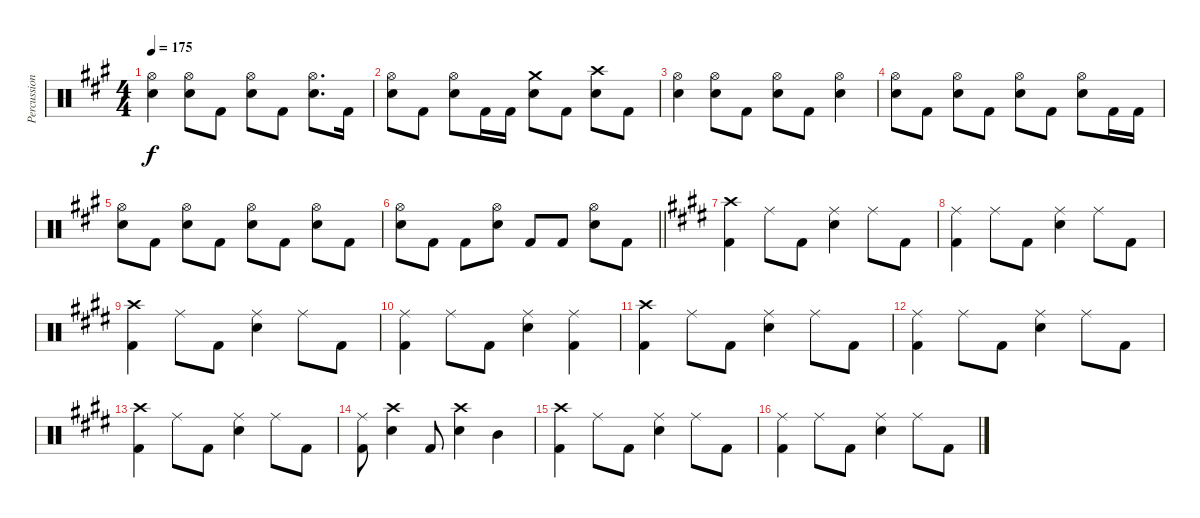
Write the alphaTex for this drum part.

\track ("Percussions" "Percussion") {instrument percussion}
\staff {score}
\articulation defaults
\ts (4 4)
\tempo 175
\clef neutral
\ks f#minor
("Hi-Hat (open)" "Snare (hit) 2").4{dy f} ("Hi-Hat (open)" "Snare (hit) 2").8 "Kick (hit) 2".8 ("Hi-Hat (open)" "Snare (hit) 2").8 "Kick (hit) 2".8 ("Hi-Hat (open)" "Snare (hit) 2").8{d} "Kick (hit) 2".16 |
("Hi-Hat (open)" "Snare (hit) 2").8 "Kick (hit) 2".8 ("Hi-Hat (open)" "Snare (hit) 2").8 "Kick (hit) 2".16 "Kick (hit) 2".16 ("Crash medium (hit)" "Snare (hit) 2").8 "Kick (hit) 2".8 ("Crash high (hit)" "Snare (hit) 2").8 "Kick (hit) 2".8 |
("Hi-Hat (open)" "Snare (hit) 2").4 ("Hi-Hat (open)" "Snare (hit) 2").8 "Kick (hit) 2".8 ("Hi-Hat (open)" "Snare (hit) 2").8 "Kick (hit) 2".8 ("Hi-Hat (open)" "Snare (hit) 2").4 |
("Hi-Hat (open)" "Snare (hit) 2").8 "Kick (hit) 2".8 ("Hi-Hat (open)" "Snare (hit) 2").8 "Kick (hit) 2".8 ("Hi-Hat (open)" "Snare (hit) 2").8 "Kick (hit) 2".8 ("Hi-Hat (open)" "Snare (hit) 2").8 "Kick (hit) 2".16 "Kick (hit) 2".16 |
("Hi-Hat (open)" "Snare (hit) 2").8 "Kick (hit) 2".8 ("Hi-Hat (open)" "Snare (hit) 2").8 "Kick (hit) 2".8 ("Hi-Hat (open)" "Snare (hit) 2").8 "Kick (hit) 2".8 ("Hi-Hat (open)" "Snare (hit) 2").8 "Kick (hit) 2".8 |
\barLineRight lightlight
("Hi-Hat (open)" "Snare (hit) 2").8 "Kick (hit) 2".8 "Kick (hit) 2".8 ("Hi-Hat (open)" "Snare (hit) 2").8 "Kick (hit) 2".8 "Kick (hit) 2".8 ("Hi-Hat (open)" "Snare (hit) 2").8 "Kick (hit) 2".8 |
\ks e
("Crash high (hit)" "Kick (hit) 2").4 "Ride (middle)".8 "Kick (hit) 2".8 ("Ride (middle)" "Snare (hit) 2").4 "Ride (middle)".8 "Kick (hit) 2".8 |
("Ride (middle)" "Kick (hit) 2").4 "Ride (middle)".8 "Kick (hit) 2".8 ("Ride (middle)" "Snare (hit) 2").4 "Ride (middle)".8 "Kick (hit) 2".8 |
("Crash high (hit)" "Kick (hit) 2").4 "Ride (middle)".8 "Kick (hit) 2".8 ("Ride (middle)" "Snare (hit) 2").4 "Ride (middle)".8 "Kick (hit) 2".8 |
("Ride (middle)" "Kick (hit) 2").4 "Ride (middle)".8 "Kick (hit) 2".8 ("Ride (middle)" "Snare (hit) 2").4 ("Ride (middle)" "Kick (hit) 2").4 |
("Crash high (hit)" "Kick (hit) 2").4 "Ride (middle)".8 "Kick (hit) 2".8 ("Ride (middle)" "Snare (hit) 2").4 "Ride (middle)".8 "Kick (hit) 2".8 |
("Ride (middle)" "Kick (hit) 2").4 "Ride (middle)".8 "Kick (hit) 2".8 ("Ride (middle)" "Snare (hit) 2").4 "Ride (middle)".8 "Kick (hit) 2".8 |
("Crash high (hit)" "Kick (hit) 2").4 "Ride (middle)".8 "Kick (hit) 2".8 ("Ride (middle)" "Snare (hit) 2").4 "Ride (middle)".8 "Kick (hit) 2".8 |
("Ride (middle)" "Kick (hit) 2").8 ("Crash high (hit)" "Snare (hit) 2").4 "Kick (hit) 2".8 ("Crash high (hit)" "Snare (hit) 2").4 "Mid Tom (hit)".4 |
("Crash high (hit)" "Kick (hit) 2").4 "Ride (middle)".8 "Kick (hit) 2".8 ("Ride (middle)" "Snare (hit) 2").4 "Ride (middle)".8 "Kick (hit) 2".8 |
("Ride (middle)" "Kick (hit) 2").4 "Ride (middle)".8 "Kick (hit) 2".8 ("Ride (middle)" "Snare (hit) 2").4 "Ride (middle)".8 "Kick (hit) 2".8
